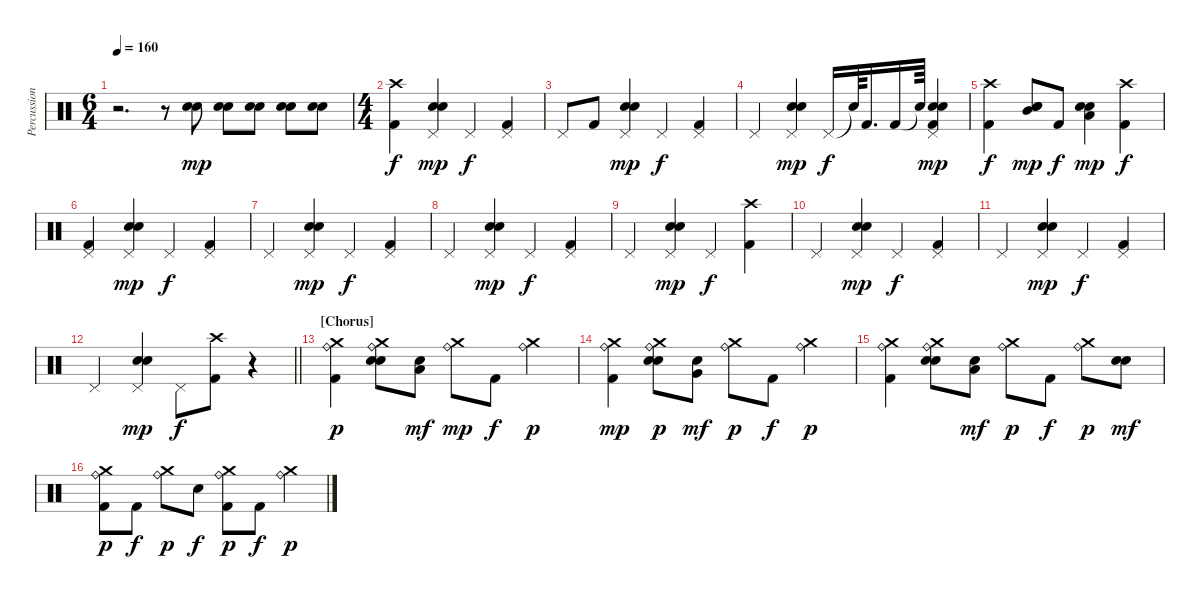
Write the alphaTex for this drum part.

\track ("Percussion" "Percussion") {instrument percussion}
\staff {score}
\articulation defaults
\ts (6 4)
\tempo 160
\clef neutral
\ks c
r.2{d dy f} r.8 ("Electric Snare (hit)" "Snare (hit) 2").8{dy mp} ("Electric Snare (hit)" "Snare (hit) 2").8 ("Electric Snare (hit)" "Snare (hit) 2").8 ("Electric Snare (hit)" "Snare (hit) 2").8 ("Electric Snare (hit)" "Snare (hit) 2").8 |
\ts (4 4)
("Crash high (hit)" "Kick (hit) 2").4{dy f} ("Pedal Hi-Hat (hit)" "Snare (hit) 2" "Electric Snare (hit)").4{dy mp} "Pedal Hi-Hat (hit)".4{dy f} ("Pedal Hi-Hat (hit)" "Kick (hit) 2").4 |
"Pedal Hi-Hat (hit)".8 "Kick (hit) 2".8 ("Pedal Hi-Hat (hit)" "Snare (hit) 2" "Electric Snare (hit)").4{dy mp} "Pedal Hi-Hat (hit)".4{dy f} ("Pedal Hi-Hat (hit)" "Kick (hit) 2").4 |
"Pedal Hi-Hat (hit)".4 ("Pedal Hi-Hat (hit)" "Snare (hit) 2" "Electric Snare (hit)").4{dy mp} "Pedal Hi-Hat (hit)".16{dy f} "Snare (hit)"{t}.64 "Kick (hit) 2".16{d} "Kick (hit) 2".16 "Snare (hit)"{t}.64 ("Pedal Hi-Hat (hit)" "Snare (hit) 2" "Kick (hit) 2" "Electric Snare (hit)").4{dy mp} |
("Kick (hit) 2" "Crash high (hit)").4{dy f} ("Mid Tom (hit)" "Snare (hit) 2" "Electric Snare (hit)").8{dy mp} "Kick (hit) 2".8{dy f} ("Low Tom (hit)" "Snare (hit) 2" "Electric Snare (hit)").4{dy mp} ("Crash high (hit)" "Kick (hit) 2").4{dy f} |
("Pedal Hi-Hat (hit)" "Kick (hit) 2").4 ("Pedal Hi-Hat (hit)" "Snare (hit) 2" "Electric Snare (hit)").4{dy mp} "Pedal Hi-Hat (hit)".4{dy f} ("Kick (hit) 2" "Pedal Hi-Hat (hit)").4 |
"Pedal Hi-Hat (hit)".4 ("Snare (hit) 2" "Pedal Hi-Hat (hit)" "Electric Snare (hit)").4{dy mp} "Pedal Hi-Hat (hit)".4{dy f} ("Kick (hit) 2" "Pedal Hi-Hat (hit)").4 |
"Pedal Hi-Hat (hit)".4 ("Snare (hit) 2" "Pedal Hi-Hat (hit)" "Electric Snare (hit)").4{dy mp} "Pedal Hi-Hat (hit)".4{dy f} ("Kick (hit) 2" "Pedal Hi-Hat (hit)").4 |
"Pedal Hi-Hat (hit)".4 ("Snare (hit) 2" "Pedal Hi-Hat (hit)" "Electric Snare (hit)").4{dy mp} "Pedal Hi-Hat (hit)".4{dy f} ("Crash high (hit)" "Kick (hit) 2").4 |
"Pedal Hi-Hat (hit)".4 ("Pedal Hi-Hat (hit)" "Snare (hit) 2" "Electric Snare (hit)").4{dy mp} "Pedal Hi-Hat (hit)".4{dy f} ("Kick (hit) 2" "Pedal Hi-Hat (hit)").4 |
"Pedal Hi-Hat (hit)".4 ("Snare (hit) 2" "Pedal Hi-Hat (hit)" "Electric Snare (hit)").4{dy mp} "Pedal Hi-Hat (hit)".4{dy f} ("Pedal Hi-Hat (hit)" "Kick (hit) 2").4 |
\barLineRight lightlight "Pedal Hi-Hat (hit)".4
("Pedal Hi-Hat (hit)" "Snare (hit) 2" "Electric Snare (hit)").4{dy mp} "Pedal Hi-Hat (hit)".8{dy f} ("Crash high (hit)" "Kick (hit) 2").8 r.4 |
\section ("" "[Chorus]")
("Kick (hit) 2" "Ride (bell)" "Crash medium (hit)").4{dy p} ("Snare (hit) 2" "Ride (bell)" "Electric Snare (hit)" "Crash medium (hit)").8 ("Low Floor Tom (hit)" "Snare (hit) 2").8{dy mf} ("Ride (bell)" "Crash medium (hit)").8{dy mp} "Kick (hit) 2".8{dy f} ("Ride (bell)" "Crash medium (hit)").4{dy p} |
("Kick (hit) 2" "Ride (bell)" "Crash medium (hit)").4{dy mp} ("Snare (hit) 2" "Ride (bell)" "Electric Snare (hit)" "Crash medium (hit)").8{dy p} ("Very Low Tom (hit)" "Snare (hit) 2").8{dy mf} ("Ride (bell)" "Crash medium (hit)").8{dy p} "Kick (hit) 2".8{dy f} ("Ride (bell)" "Crash medium (hit)").4{dy p} |
("Kick (hit) 2" "Ride (bell)" "Crash medium (hit)").4 ("Snare (hit) 2" "Ride (bell)" "Electric Snare (hit)" "Crash medium (hit)").8 ("Low Floor Tom (hit)" "Snare (hit) 2").8{dy mf} ("Ride (bell)" "Crash medium (hit)").8{dy p} "Kick (hit) 2".8{dy f} ("Ride (bell)" "Crash medium (hit)").8{dy p} ("Snare (hit) 2" "Electric Snare (hit)").8{dy mf} |
("Ride (bell)" "Kick (hit) 2" "Crash medium (hit)").8{dy p} "Kick (hit) 2".8{dy f} ("Ride (bell)" "Crash medium (hit)").8{dy p} "Snare (hit) 2".8{dy f} ("Ride (bell)" "Kick (hit) 2" "Crash medium (hit)").8{dy p} "Kick (hit) 2".8{dy f} ("Ride (bell)" "Crash medium (hit)").4{dy p}
